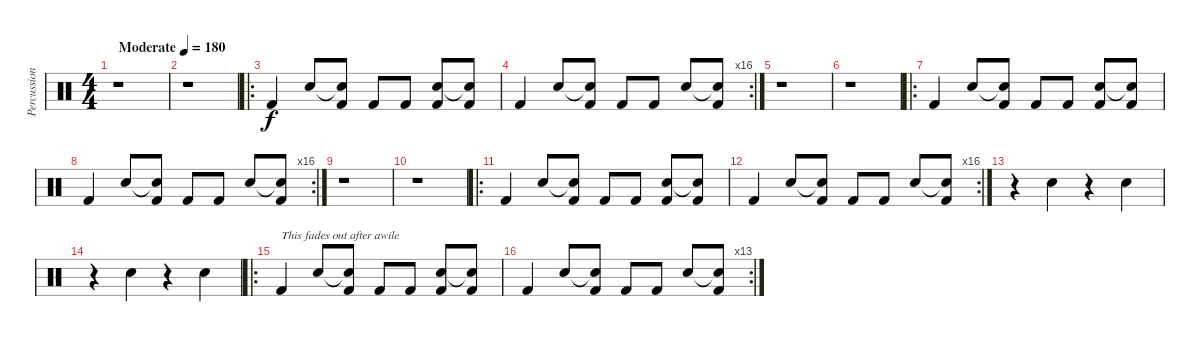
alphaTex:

\track ("Percussion" "Percussion") {instrument percussion}
\staff {score}
\articulation defaults
\ts (4 4)
\tempo (180 "Moderate")
\clef neutral
\ks c
r.1{dy f} |
r.1 |
\ro "Kick (hit) 2".4 "Electric Snare (hit)".8
("Snare (hit)"{t} "Kick (hit) 2").8 "Kick (hit) 2".8 "Kick (hit) 2".8 ("Electric Snare (hit)" "Kick (hit) 2").8 ("Snare (hit)"{t} "Kick (hit) 2").8 |
\rc 16 "Kick (hit) 2".4 "Electric Snare (hit)".8
("Electric Snare (hit)"{t} "Kick (hit) 2").8 "Kick (hit) 2".8 "Kick (hit) 2".8 "Electric Snare (hit)".8 ("Electric Snare (hit)"{t} "Kick (hit) 2").8 |
r.1 |
r.1 |
\ro "Kick (hit) 2".4 "Electric Snare (hit)".8
("Snare (hit)"{t} "Kick (hit) 2").8 "Kick (hit) 2".8 "Kick (hit) 2".8 ("Electric Snare (hit)" "Kick (hit) 2").8 ("Snare (hit)"{t} "Kick (hit) 2").8 |
\rc 16 "Kick (hit) 2".4 "Electric Snare (hit)".8
("Electric Snare (hit)"{t} "Kick (hit) 2").8 "Kick (hit) 2".8 "Kick (hit) 2".8 "Electric Snare (hit)".8 ("Electric Snare (hit)"{t} "Kick (hit) 2").8 |
r.1 |
r.1 |
\ro "Kick (hit) 2".4 "Electric Snare (hit)".8
("Snare (hit)"{t} "Kick (hit) 2").8 "Kick (hit) 2".8 "Kick (hit) 2".8 ("Electric Snare (hit)" "Kick (hit) 2").8 ("Snare (hit)"{t} "Kick (hit) 2").8 |
\rc 16 "Kick (hit) 2".4 "Electric Snare (hit)".8
("Electric Snare (hit)"{t} "Kick (hit) 2").8 "Kick (hit) 2".8 "Kick (hit) 2".8 "Electric Snare (hit)".8 ("Electric Snare (hit)"{t} "Kick (hit) 2").8 |
r.4 "Electric Snare (hit)".4 r.4 "Electric Snare (hit)".4 |
r.4 "Electric Snare (hit)".4 r.4 "Electric Snare (hit)".4 |
\ro "Kick (hit) 2".4{txt "This fades out after awile"} "Electric Snare (hit)".8
("Snare (hit)"{t} "Kick (hit) 2").8 "Kick (hit) 2".8 "Kick (hit) 2".8 ("Electric Snare (hit)" "Kick (hit) 2").8 ("Snare (hit)"{t} "Kick (hit) 2").8 |
\rc 13 "Kick (hit) 2".4 "Electric Snare (hit)".8
("Electric Snare (hit)"{t} "Kick (hit) 2").8 "Kick (hit) 2".8 "Kick (hit) 2".8 "Electric Snare (hit)".8 ("Electric Snare (hit)"{t} "Kick (hit) 2").8
